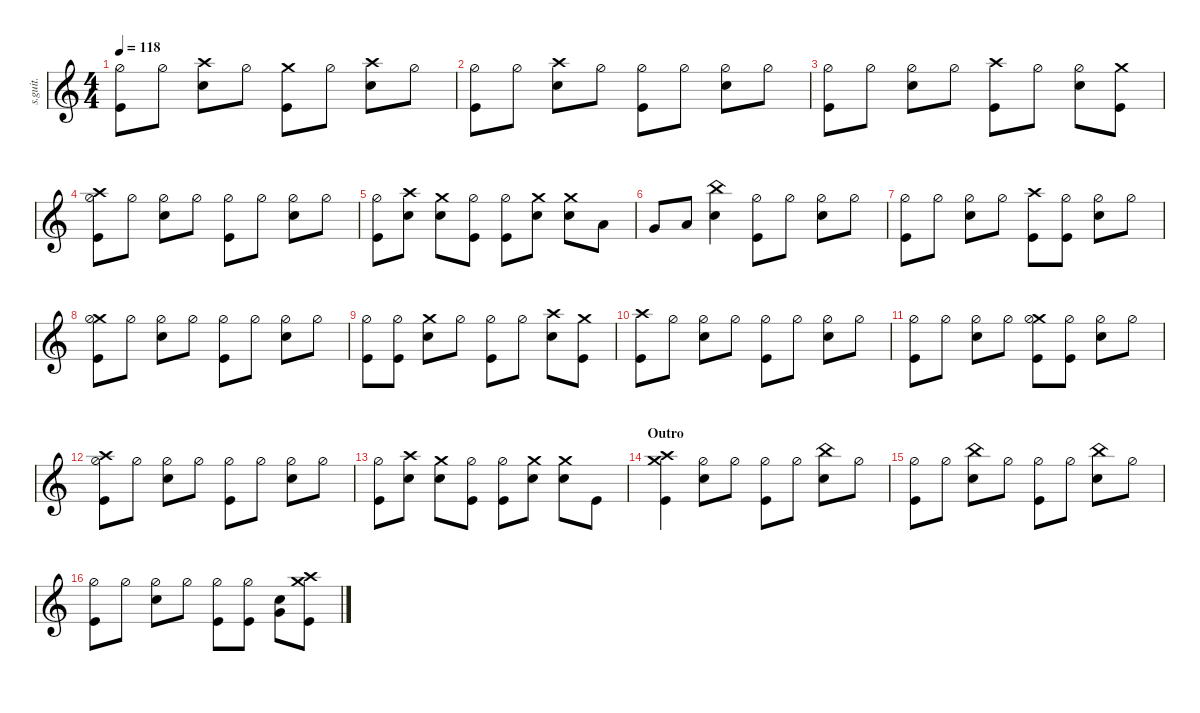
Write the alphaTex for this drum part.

\defaultSystemsLayout 4
\hideDynamics
\bracketExtendMode nobrackets
\track ("Drums [Arin Ilejay]" "s.guit.") {instrument percussion}
\staff {score}
\articulation defaults
\ts (4 4)
\tempo 118
\clef g2
\ks c
("Hi-Hat (half)" "Kick (hit)").8{lyrics (0 "") lyrics (1 "") lyrics (2 "") lyrics (3 "") lyrics (4 "") dy f} "Hi-Hat (half)".8{lyrics (0 "") lyrics (1 "") lyrics (2 "") lyrics (3 "") lyrics (4 "")} ("Crash high (hit)" "Snare (hit) 2").8{lyrics (0 "") lyrics (1 "") lyrics (2 "") lyrics (3 "") lyrics (4 "")} "Hi-Hat (half)".8{lyrics (0 "") lyrics (1 "") lyrics (2 "") lyrics (3 "") lyrics (4 "")} ("Crash medium (hit)" "Kick (hit)").8{lyrics (0 "") lyrics (1 "") lyrics (2 "") lyrics (3 "") lyrics (4 "")} "Hi-Hat (half)".8{lyrics (0 "") lyrics (1 "") lyrics (2 "") lyrics (3 "") lyrics (4 "")} ("Crash high (hit)" "Snare (hit) 2").8{lyrics (0 "") lyrics (1 "") lyrics (2 "") lyrics (3 "") lyrics (4 "")} "Hi-Hat (half)".8{lyrics (0 "") lyrics (1 "") lyrics (2 "") lyrics (3 "") lyrics (4 "")} |
("Hi-Hat (half)" "Kick (hit)").8{lyrics (0 "") lyrics (1 "") lyrics (2 "") lyrics (3 "") lyrics (4 "")} "Hi-Hat (half)".8{lyrics (0 "") lyrics (1 "") lyrics (2 "") lyrics (3 "") lyrics (4 "")} ("Crash high (hit)" "Snare (hit) 2").8{lyrics (0 "") lyrics (1 "") lyrics (2 "") lyrics (3 "") lyrics (4 "")} "Hi-Hat (half)".8{lyrics (0 "") lyrics (1 "") lyrics (2 "") lyrics (3 "") lyrics (4 "")} ("Hi-Hat (half)" "Kick (hit)").8{lyrics (0 "") lyrics (1 "") lyrics (2 "") lyrics (3 "") lyrics (4 "")} "Hi-Hat (half)".8{lyrics (0 "") lyrics (1 "") lyrics (2 "") lyrics (3 "") lyrics (4 "")} ("Hi-Hat (half)" "Snare (hit) 2").8{lyrics (0 "") lyrics (1 "") lyrics (2 "") lyrics (3 "") lyrics (4 "")} "Hi-Hat (half)".8{lyrics (0 "") lyrics (1 "") lyrics (2 "") lyrics (3 "") lyrics (4 "")} |
("Hi-Hat (half)" "Kick (hit)").8{lyrics (0 "") lyrics (1 "") lyrics (2 "") lyrics (3 "") lyrics (4 "")} "Hi-Hat (half)".8{lyrics (0 "") lyrics (1 "") lyrics (2 "") lyrics (3 "") lyrics (4 "")} ("Hi-Hat (half)" "Snare (hit) 2").8{lyrics (0 "") lyrics (1 "") lyrics (2 "") lyrics (3 "") lyrics (4 "")} "Hi-Hat (half)".8{lyrics (0 "") lyrics (1 "") lyrics (2 "") lyrics (3 "") lyrics (4 "")} ("Crash high (hit)" "Kick (hit)").8{lyrics (0 "") lyrics (1 "") lyrics (2 "") lyrics (3 "") lyrics (4 "")} "Hi-Hat (half)".8{lyrics (0 "") lyrics (1 "") lyrics (2 "") lyrics (3 "") lyrics (4 "")} ("Hi-Hat (half)" "Snare (hit) 2").8{lyrics (0 "") lyrics (1 "") lyrics (2 "") lyrics (3 "") lyrics (4 "")} ("Crash medium (hit)" "Kick (hit)").8{lyrics (0 "") lyrics (1 "") lyrics (2 "") lyrics (3 "") lyrics (4 "")} |
("Crash high (hit)" "Hi-Hat (half)" "Kick (hit)").8{lyrics (0 "") lyrics (1 "") lyrics (2 "") lyrics (3 "") lyrics (4 "")} "Hi-Hat (half)".8{lyrics (0 "") lyrics (1 "") lyrics (2 "") lyrics (3 "") lyrics (4 "")} ("Hi-Hat (half)" "Snare (hit) 2").8{lyrics (0 "") lyrics (1 "") lyrics (2 "") lyrics (3 "") lyrics (4 "")} "Hi-Hat (half)".8{lyrics (0 "") lyrics (1 "") lyrics (2 "") lyrics (3 "") lyrics (4 "")} ("Hi-Hat (half)" "Kick (hit)").8{lyrics (0 "") lyrics (1 "") lyrics (2 "") lyrics (3 "") lyrics (4 "")} "Hi-Hat (half)".8{lyrics (0 "") lyrics (1 "") lyrics (2 "") lyrics (3 "") lyrics (4 "")} ("Hi-Hat (half)" "Snare (hit) 2").8{lyrics (0 "") lyrics (1 "") lyrics (2 "") lyrics (3 "") lyrics (4 "")} "Hi-Hat (half)".8{lyrics (0 "") lyrics (1 "") lyrics (2 "") lyrics (3 "") lyrics (4 "")} |
("Hi-Hat (half)" "Kick (hit)").8{lyrics (0 "") lyrics (1 "") lyrics (2 "") lyrics (3 "") lyrics (4 "")} ("Crash high (hit)" "Snare (hit) 2").8{lyrics (0 "") lyrics (1 "") lyrics (2 "") lyrics (3 "") lyrics (4 "")} ("Crash medium (hit)" "Snare (hit) 2").8{lyrics (0 "") lyrics (1 "") lyrics (2 "") lyrics (3 "") lyrics (4 "")} ("Hi-Hat (half)" "Kick (hit)").8{lyrics (0 "") lyrics (1 "") lyrics (2 "") lyrics (3 "") lyrics (4 "")} ("Hi-Hat (half)" "Kick (hit)").8{lyrics (0 "") lyrics (1 "") lyrics (2 "") lyrics (3 "") lyrics (4 "")} ("Crash medium (hit)" "Snare (hit) 2").8{lyrics (0 "") lyrics (1 "") lyrics (2 "") lyrics (3 "") lyrics (4 "")} ("Crash medium (hit)" "Snare (hit) 2").8{lyrics (0 "") lyrics (1 "") lyrics (2 "") lyrics (3 "") lyrics (4 "")} "Low Tom (hit)".8{lyrics (0 "") lyrics (1 "") lyrics (2 "") lyrics (3 "") lyrics (4 "")} |
"Very Low Tom (hit)".8{lyrics (0 "") lyrics (1 "") lyrics (2 "") lyrics (3 "") lyrics (4 "")} "Low Floor Tom (hit)".8{lyrics (0 "") lyrics (1 "") lyrics (2 "") lyrics (3 "") lyrics (4 "")} ("China (hit)" "Snare (hit) 2").4{lyrics (0 "") lyrics (1 "") lyrics (2 "") lyrics (3 "") lyrics (4 "")} ("Hi-Hat (half)" "Kick (hit)").8{lyrics (0 "") lyrics (1 "") lyrics (2 "") lyrics (3 "") lyrics (4 "")} "Hi-Hat (half)".8{lyrics (0 "") lyrics (1 "") lyrics (2 "") lyrics (3 "") lyrics (4 "")} ("Hi-Hat (half)" "Snare (hit) 2").8{lyrics (0 "") lyrics (1 "") lyrics (2 "") lyrics (3 "") lyrics (4 "")} "Hi-Hat (half)".8{lyrics (0 "") lyrics (1 "") lyrics (2 "") lyrics (3 "") lyrics (4 "")} |
("Hi-Hat (half)" "Kick (hit)").8{lyrics (0 "") lyrics (1 "") lyrics (2 "") lyrics (3 "") lyrics (4 "")} "Hi-Hat (half)".8{lyrics (0 "") lyrics (1 "") lyrics (2 "") lyrics (3 "") lyrics (4 "")} ("Hi-Hat (half)" "Snare (hit) 2").8{lyrics (0 "") lyrics (1 "") lyrics (2 "") lyrics (3 "") lyrics (4 "")} "Hi-Hat (half)".8{lyrics (0 "") lyrics (1 "") lyrics (2 "") lyrics (3 "") lyrics (4 "")} ("Crash high (hit)" "Kick (hit)").8{lyrics (0 "") lyrics (1 "") lyrics (2 "") lyrics (3 "") lyrics (4 "")} ("Hi-Hat (half)" "Kick (hit)").8{lyrics (0 "") lyrics (1 "") lyrics (2 "") lyrics (3 "") lyrics (4 "")} ("Hi-Hat (half)" "Snare (hit) 2").8{lyrics (0 "") lyrics (1 "") lyrics (2 "") lyrics (3 "") lyrics (4 "")} "Hi-Hat (half)".8{lyrics (0 "") lyrics (1 "") lyrics (2 "") lyrics (3 "") lyrics (4 "")} |
("Crash medium (hit)" "Hi-Hat (half)" "Kick (hit)").8{lyrics (0 "") lyrics (1 "") lyrics (2 "") lyrics (3 "") lyrics (4 "")} "Hi-Hat (half)".8{lyrics (0 "") lyrics (1 "") lyrics (2 "") lyrics (3 "") lyrics (4 "")} ("Hi-Hat (half)" "Snare (hit) 2").8{lyrics (0 "") lyrics (1 "") lyrics (2 "") lyrics (3 "") lyrics (4 "")} "Hi-Hat (half)".8{lyrics (0 "") lyrics (1 "") lyrics (2 "") lyrics (3 "") lyrics (4 "")} ("Hi-Hat (half)" "Kick (hit)").8{lyrics (0 "") lyrics (1 "") lyrics (2 "") lyrics (3 "") lyrics (4 "")} "Hi-Hat (half)".8{lyrics (0 "") lyrics (1 "") lyrics (2 "") lyrics (3 "") lyrics (4 "")} ("Hi-Hat (half)" "Snare (hit) 2").8{lyrics (0 "") lyrics (1 "") lyrics (2 "") lyrics (3 "") lyrics (4 "")} "Hi-Hat (half)".8{lyrics (0 "") lyrics (1 "") lyrics (2 "") lyrics (3 "") lyrics (4 "")} |
("Hi-Hat (half)" "Kick (hit)").8{lyrics (0 "") lyrics (1 "") lyrics (2 "") lyrics (3 "") lyrics (4 "")} ("Hi-Hat (half)" "Kick (hit)").8{lyrics (0 "") lyrics (1 "") lyrics (2 "") lyrics (3 "") lyrics (4 "")} ("Crash medium (hit)" "Snare (hit) 2").8{lyrics (0 "") lyrics (1 "") lyrics (2 "") lyrics (3 "") lyrics (4 "")} "Hi-Hat (half)".8{lyrics (0 "") lyrics (1 "") lyrics (2 "") lyrics (3 "") lyrics (4 "")} ("Hi-Hat (half)" "Kick (hit)").8{lyrics (0 "") lyrics (1 "") lyrics (2 "") lyrics (3 "") lyrics (4 "")} "Hi-Hat (half)".8{lyrics (0 "") lyrics (1 "") lyrics (2 "") lyrics (3 "") lyrics (4 "")} ("Crash high (hit)" "Snare (hit) 2").8{lyrics (0 "") lyrics (1 "") lyrics (2 "") lyrics (3 "") lyrics (4 "")} ("Crash medium (hit)" "Kick (hit)").8{lyrics (0 "") lyrics (1 "") lyrics (2 "") lyrics (3 "") lyrics (4 "")} |
("Crash high (hit)" "Kick (hit)").8{lyrics (0 "") lyrics (1 "") lyrics (2 "") lyrics (3 "") lyrics (4 "")} "Hi-Hat (half)".8{lyrics (0 "") lyrics (1 "") lyrics (2 "") lyrics (3 "") lyrics (4 "")} ("Hi-Hat (half)" "Snare (hit) 2").8{lyrics (0 "") lyrics (1 "") lyrics (2 "") lyrics (3 "") lyrics (4 "")} "Hi-Hat (half)".8{lyrics (0 "") lyrics (1 "") lyrics (2 "") lyrics (3 "") lyrics (4 "")} ("Hi-Hat (half)" "Kick (hit)").8{lyrics (0 "") lyrics (1 "") lyrics (2 "") lyrics (3 "") lyrics (4 "")} "Hi-Hat (half)".8{lyrics (0 "") lyrics (1 "") lyrics (2 "") lyrics (3 "") lyrics (4 "")} ("Hi-Hat (half)" "Snare (hit) 2").8{lyrics (0 "") lyrics (1 "") lyrics (2 "") lyrics (3 "") lyrics (4 "")} "Hi-Hat (half)".8{lyrics (0 "") lyrics (1 "") lyrics (2 "") lyrics (3 "") lyrics (4 "")} |
("Hi-Hat (half)" "Kick (hit)").8{lyrics (0 "") lyrics (1 "") lyrics (2 "") lyrics (3 "") lyrics (4 "")} "Hi-Hat (half)".8{lyrics (0 "") lyrics (1 "") lyrics (2 "") lyrics (3 "") lyrics (4 "")} ("Hi-Hat (half)" "Snare (hit) 2").8{lyrics (0 "") lyrics (1 "") lyrics (2 "") lyrics (3 "") lyrics (4 "")} "Hi-Hat (half)".8{lyrics (0 "") lyrics (1 "") lyrics (2 "") lyrics (3 "") lyrics (4 "")} ("Crash medium (hit)" "Hi-Hat (half)" "Kick (hit)").8{lyrics (0 "") lyrics (1 "") lyrics (2 "") lyrics (3 "") lyrics (4 "")} ("Hi-Hat (half)" "Kick (hit)").8{lyrics (0 "") lyrics (1 "") lyrics (2 "") lyrics (3 "") lyrics (4 "")} ("Hi-Hat (half)" "Snare (hit) 2").8{lyrics (0 "") lyrics (1 "") lyrics (2 "") lyrics (3 "") lyrics (4 "")} "Hi-Hat (half)".8{lyrics (0 "") lyrics (1 "") lyrics (2 "") lyrics (3 "") lyrics (4 "")} |
("Crash high (hit)" "Hi-Hat (half)" "Kick (hit)").8{lyrics (0 "") lyrics (1 "") lyrics (2 "") lyrics (3 "") lyrics (4 "")} "Hi-Hat (half)".8{lyrics (0 "") lyrics (1 "") lyrics (2 "") lyrics (3 "") lyrics (4 "")} ("Hi-Hat (half)" "Snare (hit) 2").8{lyrics (0 "") lyrics (1 "") lyrics (2 "") lyrics (3 "") lyrics (4 "")} "Hi-Hat (half)".8{lyrics (0 "") lyrics (1 "") lyrics (2 "") lyrics (3 "") lyrics (4 "")} ("Hi-Hat (half)" "Kick (hit)").8{lyrics (0 "") lyrics (1 "") lyrics (2 "") lyrics (3 "") lyrics (4 "")} "Hi-Hat (half)".8{lyrics (0 "") lyrics (1 "") lyrics (2 "") lyrics (3 "") lyrics (4 "")} ("Hi-Hat (half)" "Snare (hit) 2").8{lyrics (0 "") lyrics (1 "") lyrics (2 "") lyrics (3 "") lyrics (4 "")} "Hi-Hat (half)".8{lyrics (0 "") lyrics (1 "") lyrics (2 "") lyrics (3 "") lyrics (4 "")} |
("Hi-Hat (half)" "Kick (hit)").8{lyrics (0 "") lyrics (1 "") lyrics (2 "") lyrics (3 "") lyrics (4 "")} ("Crash high (hit)" "Snare (hit) 2").8{lyrics (0 "") lyrics (1 "") lyrics (2 "") lyrics (3 "") lyrics (4 "")} ("Crash medium (hit)" "Snare (hit) 2").8{lyrics (0 "") lyrics (1 "") lyrics (2 "") lyrics (3 "") lyrics (4 "")} ("Hi-Hat (half)" "Kick (hit)").8{lyrics (0 "") lyrics (1 "") lyrics (2 "") lyrics (3 "") lyrics (4 "")} ("Hi-Hat (half)" "Kick (hit)").8{lyrics (0 "") lyrics (1 "") lyrics (2 "") lyrics (3 "") lyrics (4 "")} ("Crash medium (hit)" "Snare (hit) 2").8{lyrics (0 "") lyrics (1 "") lyrics (2 "") lyrics (3 "") lyrics (4 "")} ("Crash medium (hit)" "Snare (hit) 2").8{lyrics (0 "") lyrics (1 "") lyrics (2 "") lyrics (3 "") lyrics (4 "")} "Kick (hit)".8{lyrics (0 "") lyrics (1 "") lyrics (2 "") lyrics (3 "") lyrics (4 "")} |
\section ("" "Outro")
("Crash high (hit)" "Crash medium (hit)" "Kick (hit)").4{lyrics (0 "") lyrics (1 "") lyrics (2 "") lyrics (3 "") lyrics (4 "")} ("Hi-Hat (half)" "Snare (hit) 2").8{lyrics (0 "") lyrics (1 "") lyrics (2 "") lyrics (3 "") lyrics (4 "")} "Hi-Hat (half)".8{lyrics (0 "") lyrics (1 "") lyrics (2 "") lyrics (3 "") lyrics (4 "")} ("Hi-Hat (half)" "Kick (hit)").8{lyrics (0 "") lyrics (1 "") lyrics (2 "") lyrics (3 "") lyrics (4 "")} "Hi-Hat (half)".8{lyrics (0 "") lyrics (1 "") lyrics (2 "") lyrics (3 "") lyrics (4 "")} ("China (hit)" "Snare (hit) 2").8{lyrics (0 "") lyrics (1 "") lyrics (2 "") lyrics (3 "") lyrics (4 "")} "Hi-Hat (half)".8{lyrics (0 "") lyrics (1 "") lyrics (2 "") lyrics (3 "") lyrics (4 "")} |
("Hi-Hat (half)" "Kick (hit)").8{lyrics (0 "") lyrics (1 "") lyrics (2 "") lyrics (3 "") lyrics (4 "")} "Hi-Hat (half)".8{lyrics (0 "") lyrics (1 "") lyrics (2 "") lyrics (3 "") lyrics (4 "")} ("China (hit)" "Snare (hit) 2").8{lyrics (0 "") lyrics (1 "") lyrics (2 "") lyrics (3 "") lyrics (4 "")} "Hi-Hat (half)".8{lyrics (0 "") lyrics (1 "") lyrics (2 "") lyrics (3 "") lyrics (4 "")} ("Hi-Hat (half)" "Kick (hit)").8{lyrics (0 "") lyrics (1 "") lyrics (2 "") lyrics (3 "") lyrics (4 "")} "Hi-Hat (half)".8{lyrics (0 "") lyrics (1 "") lyrics (2 "") lyrics (3 "") lyrics (4 "")} ("China (hit)" "Snare (hit) 2").8{lyrics (0 "") lyrics (1 "") lyrics (2 "") lyrics (3 "") lyrics (4 "")} "Hi-Hat (half)".8{lyrics (0 "") lyrics (1 "") lyrics (2 "") lyrics (3 "") lyrics (4 "")} |
("Hi-Hat (half)" "Kick (hit)").8{lyrics (0 "") lyrics (1 "") lyrics (2 "") lyrics (3 "") lyrics (4 "")} "Hi-Hat (half)".8{lyrics (0 "") lyrics (1 "") lyrics (2 "") lyrics (3 "") lyrics (4 "")} ("Hi-Hat (half)" "Snare (hit) 2").8{lyrics (0 "") lyrics (1 "") lyrics (2 "") lyrics (3 "") lyrics (4 "")} "Hi-Hat (half)".8{lyrics (0 "") lyrics (1 "") lyrics (2 "") lyrics (3 "") lyrics (4 "")} ("Hi-Hat (half)" "Kick (hit)").8{lyrics (0 "") lyrics (1 "") lyrics (2 "") lyrics (3 "") lyrics (4 "")} ("Hi-Hat (half)" "Kick (hit)").8{lyrics (0 "") lyrics (1 "") lyrics (2 "") lyrics (3 "") lyrics (4 "")} ("Snare (hit) 2" "Very Low Tom (hit)").8{lyrics (0 "") lyrics (1 "") lyrics (2 "") lyrics (3 "") lyrics (4 "")} ("Crash high (hit)" "Crash medium (hit)" "Kick (hit)").8{lyrics (0 "") lyrics (1 "") lyrics (2 "") lyrics (3 "") lyrics (4 "")}
